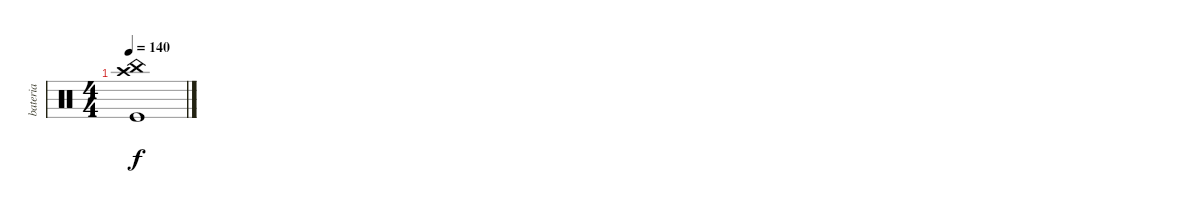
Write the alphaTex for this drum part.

\track ("bateria" "bateria") {instrument percussion}
\staff {score}
\articulation defaults
\ts (4 4)
\tempo 140
\clef neutral
\ks c
("China (hit)" "Crash high (hit)" "Kick (hit)").1{dy f}
